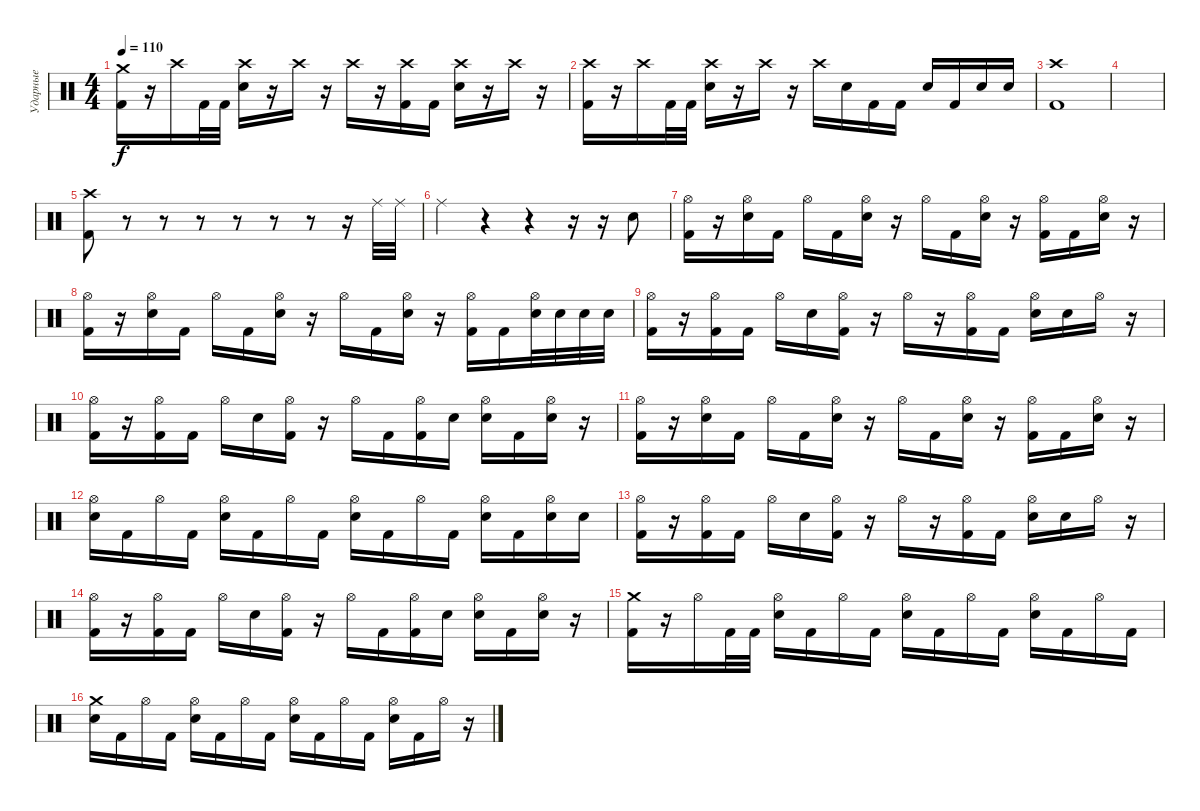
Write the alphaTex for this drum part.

\track ("Ударные" "Ударные") {instrument percussion}
\staff {score}
\articulation defaults
\ts (4 4)
\tempo 110
\clef neutral
\ks c
("Crash medium (hit)" "Kick (hit) 2").16{dy f} r.16 "Crash high (hit)".16 "Kick (hit) 2".32 "Kick (hit) 2".32 ("Crash high (hit)" "Electric Snare (hit)").16 r.16 "Crash high (hit)".16 r.16 "Crash high (hit)".16 r.16 ("Crash high (hit)" "Kick (hit) 2").16 "Kick (hit) 2".16 ("Crash high (hit)" "Electric Snare (hit)").16 r.16 "Crash high (hit)".16 r.16 |
("Crash high (hit)" "Kick (hit) 2").16 r.16 "Crash high (hit)".16 "Kick (hit) 2".32 "Kick (hit) 2".32 ("Crash high (hit)" "Electric Snare (hit)").16 r.16 "Crash high (hit)".16 r.16 "Crash high (hit)".16 "Electric Snare (hit)".16 "Kick (hit) 2".16 "Kick (hit) 2".16 "Electric Snare (hit)".16 "Kick (hit) 2".16 "Electric Snare (hit)".16 "Electric Snare (hit)".16 |
("Crash high (hit)" "Kick (hit) 2").1 |
|
("Crash high (hit)" "Kick (hit) 2").8 r.8 r.8 r.8 r.8 r.8 r.8 r.16 "Ride (middle)".32 "Ride (middle)".32 |
"Ride (middle)".4 r.4 r.4 r.16 r.16 "Electric Snare (hit)".8 |
("Hi-Hat (open)" "Kick (hit) 2").16 r.16 ("Hi-Hat (open)" "Electric Snare (hit)").16 "Kick (hit) 2".16 "Hi-Hat (open)".16 "Kick (hit) 2".16 ("Hi-Hat (open)" "Electric Snare (hit)").16 r.16 "Hi-Hat (open)".16 "Kick (hit) 2".16 ("Hi-Hat (open)" "Electric Snare (hit)").16 r.16 ("Hi-Hat (open)" "Kick (hit) 2").16 "Kick (hit) 2".16 ("Hi-Hat (open)" "Electric Snare (hit)").16 r.16 |
("Hi-Hat (open)" "Kick (hit) 2").16 r.16 ("Hi-Hat (open)" "Electric Snare (hit)").16 "Kick (hit) 2".16 "Hi-Hat (open)".16 "Kick (hit) 2".16 ("Hi-Hat (open)" "Electric Snare (hit)").16 r.16 "Hi-Hat (open)".16 "Kick (hit) 2".16 ("Hi-Hat (open)" "Electric Snare (hit)").16 r.16 ("Hi-Hat (open)" "Kick (hit) 2").16 "Kick (hit) 2".16 ("Hi-Hat (open)" "Electric Snare (hit)").32 "Electric Snare (hit)".32 "Electric Snare (hit)".32 "Electric Snare (hit)".32 |
("Hi-Hat (open)" "Kick (hit) 2").16 r.16 ("Hi-Hat (open)" "Kick (hit) 2").16 "Kick (hit) 2".16 "Hi-Hat (open)".16 "Electric Snare (hit)".16 ("Hi-Hat (open)" "Kick (hit) 2").16 r.16 "Hi-Hat (open)".16 r.16 ("Hi-Hat (open)" "Kick (hit) 2").16 "Kick (hit) 2".16 ("Hi-Hat (open)" "Electric Snare (hit)").16 "Electric Snare (hit)".16 "Hi-Hat (open)".16 r.16 |
("Hi-Hat (open)" "Kick (hit) 2").16 r.16 ("Hi-Hat (open)" "Kick (hit) 2").16 "Kick (hit) 2".16 "Hi-Hat (open)".16 "Electric Snare (hit)".16 ("Hi-Hat (open)" "Kick (hit) 2").16 r.16 "Hi-Hat (open)".16 "Kick (hit) 2".16 ("Hi-Hat (open)" "Kick (hit) 2").16 "Electric Snare (hit)".16 ("Hi-Hat (open)" "Electric Snare (hit)").16 "Kick (hit) 2".16 ("Hi-Hat (open)" "Electric Snare (hit)").16 r.16 |
("Hi-Hat (open)" "Kick (hit) 2").16 r.16 ("Hi-Hat (open)" "Electric Snare (hit)").16 "Kick (hit) 2".16 "Hi-Hat (open)".16 "Kick (hit) 2".16 ("Hi-Hat (open)" "Electric Snare (hit)").16 r.16 "Hi-Hat (open)".16 "Kick (hit) 2".16 ("Hi-Hat (open)" "Electric Snare (hit)").16 r.16 ("Hi-Hat (open)" "Kick (hit) 2").16 "Kick (hit) 2".16 ("Hi-Hat (open)" "Electric Snare (hit)").16 r.16 |
("Hi-Hat (open)" "Electric Snare (hit)").16 "Kick (hit) 2".16 "Hi-Hat (open)".16 "Kick (hit) 2".16 ("Hi-Hat (open)" "Electric Snare (hit)").16 "Kick (hit) 2".16 "Hi-Hat (open)".16 "Kick (hit) 2".16 ("Hi-Hat (open)" "Electric Snare (hit)").16 "Kick (hit) 2".16 "Hi-Hat (open)".16 "Kick (hit) 2".16 ("Hi-Hat (open)" "Electric Snare (hit)").16 "Kick (hit) 2".16 ("Hi-Hat (open)" "Electric Snare (hit)").16 "Electric Snare (hit)".16 |
("Hi-Hat (open)" "Kick (hit) 2").16 r.16 ("Hi-Hat (open)" "Kick (hit) 2").16 "Kick (hit) 2".16 "Hi-Hat (open)".16 "Electric Snare (hit)".16 ("Hi-Hat (open)" "Kick (hit) 2").16 r.16 "Hi-Hat (open)".16 r.16 ("Hi-Hat (open)" "Kick (hit) 2").16 "Kick (hit) 2".16 ("Hi-Hat (open)" "Electric Snare (hit)").16 "Electric Snare (hit)".16 "Hi-Hat (open)".16 r.16 |
("Hi-Hat (open)" "Kick (hit) 2").16 r.16 ("Hi-Hat (open)" "Kick (hit) 2").16 "Kick (hit) 2".16 "Hi-Hat (open)".16 "Electric Snare (hit)".16 ("Hi-Hat (open)" "Kick (hit) 2").16 r.16 "Hi-Hat (open)".16 "Kick (hit) 2".16 ("Hi-Hat (open)" "Kick (hit) 2").16 "Electric Snare (hit)".16 ("Hi-Hat (open)" "Electric Snare (hit)").16 "Kick (hit) 2".16 ("Hi-Hat (open)" "Electric Snare (hit)").16 r.16 |
("Crash medium (hit)" "Kick (hit) 2").16 r.16 "Hi-Hat (open)".16 "Kick (hit) 2".32 "Kick (hit) 2".32 ("Hi-Hat (open)" "Electric Snare (hit)").16 "Kick (hit) 2".16 "Hi-Hat (open)".16 "Kick (hit) 2".16 ("Hi-Hat (open)" "Electric Snare (hit)").16 "Kick (hit) 2".16 "Hi-Hat (open)".16 "Kick (hit) 2".16 ("Hi-Hat (open)" "Electric Snare (hit)").16 "Kick (hit) 2".16 "Hi-Hat (open)".16 "Kick (hit) 2".16 |
("Crash medium (hit)" "Electric Snare (hit)").16 "Kick (hit) 2".16 "Hi-Hat (open)".16 "Kick (hit) 2".16 ("Hi-Hat (open)" "Electric Snare (hit)").16 "Kick (hit) 2".16 "Hi-Hat (open)".16 "Kick (hit) 2".16 ("Hi-Hat (open)" "Electric Snare (hit)").16 "Kick (hit) 2".16 "Hi-Hat (open)".16 "Kick (hit) 2".16 ("Hi-Hat (open)" "Electric Snare (hit)").16 "Kick (hit) 2".16 "Hi-Hat (open)".16 r.16
